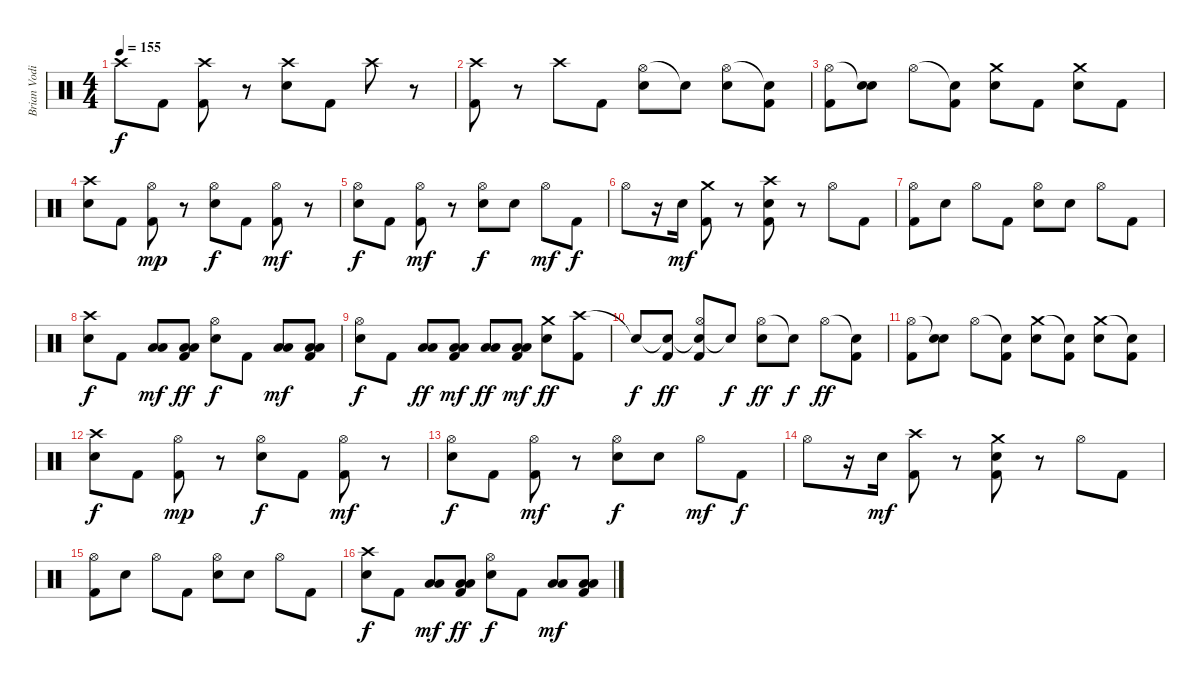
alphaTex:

\track ("Brian Vodinh" "Brian Vodi") {instrument percussion}
\staff {score}
\articulation defaults
\ts (4 4)
\tempo 155
\clef neutral
\ks c "Crash high (hit)".8{dy f} "Kick (hit) 2".8
("Crash high (hit)" "Kick (hit) 2").8 r.8 ("Crash high (hit)" "Electric Snare (hit)").8 "Kick (hit) 2".8 "Crash high (hit)".8 r.8 |
("Crash high (hit)" "Kick (hit) 2").8 r.8 "Crash high (hit)".8 "Kick (hit) 2".8 ("Hi-Hat (open)" "Electric Snare (hit)").8 "Snare (hit)"{t}.8 ("Hi-Hat (open)" "Electric Snare (hit)").8 ("Snare (hit)"{t} "Kick (hit) 2").8 |
("Hi-Hat (open)" "Kick (hit) 2").8 ("Snare (hit)"{t} "Electric Snare (hit)").8 "Hi-Hat (open)".8 ("Snare (hit)"{t} "Kick (hit) 2").8 ("Crash medium (hit)" "Electric Snare (hit)").8 "Kick (hit) 2".8 ("Crash medium (hit)" "Electric Snare (hit)").8 "Kick (hit) 2".8 |
("Crash high (hit)" "Electric Snare (hit)").8 "Kick (hit) 2".8 ("Hi-Hat (open)" "Kick (hit) 2").8{dy mp} r.8 ("Hi-Hat (open)" "Electric Snare (hit)").8{dy f} "Kick (hit) 2".8 ("Hi-Hat (open)" "Kick (hit) 2").8{dy mf} r.8 |
("Hi-Hat (open)" "Electric Snare (hit)").8{dy f} "Kick (hit) 2".8 ("Hi-Hat (open)" "Kick (hit) 2").8{dy mf} r.8 ("Hi-Hat (open)" "Electric Snare (hit)").8{dy f} "Electric Snare (hit)".8 "Hi-Hat (open)".8{dy mf} "Kick (hit) 2".8{dy f} |
"Hi-Hat (open)".8 r.16 "Electric Snare (hit)".16{dy mf} ("Crash medium (hit)" "Kick (hit) 2").8 r.8 ("Crash high (hit)" "Electric Snare (hit)" "Kick (hit) 2").8 r.8 "Hi-Hat (open)".8 "Kick (hit) 2".8 |
("Hi-Hat (open)" "Kick (hit) 2").8 "Electric Snare (hit)".8 "Hi-Hat (open)".8 "Kick (hit) 2".8 ("Hi-Hat (open)" "Electric Snare (hit)").8 "Electric Snare (hit)".8 "Hi-Hat (open)".8 "Kick (hit) 2".8 |
("Crash high (hit)" "Electric Snare (hit)").8{dy f} "Kick (hit) 2".8 ("Low Floor Tom (hit)" "Low Floor Tom (hit)").8{dy mf} ("Low Floor Tom (hit)" "Low Floor Tom (hit)" "Kick (hit) 2").8{dy ff} ("Hi-Hat (open)" "Electric Snare (hit)").8{dy f} "Kick (hit) 2".8 ("Low Floor Tom (hit)" "Low Floor Tom (hit)").8{dy mf} ("Low Floor Tom (hit)" "Low Floor Tom (hit)" "Kick (hit) 2").8 |
("Hi-Hat (open)" "Electric Snare (hit)").8{dy f} "Kick (hit) 2".8 ("Low Floor Tom (hit)" "Low Floor Tom (hit)").8{dy ff} ("Low Floor Tom (hit)" "Low Floor Tom (hit)" "Kick (hit) 2").8{dy mf} ("Low Floor Tom (hit)" "Low Floor Tom (hit)").8{dy ff} ("Low Floor Tom (hit)" "Low Floor Tom (hit)" "Kick (hit) 2").8{dy mf} ("Crash medium (hit)" "Electric Snare (hit)").8{dy ff} ("Crash high (hit)" "Kick (hit) 2").8 |
"Snare (hit)"{t}.8{dy f} ("Snare (hit)"{t} "Kick (hit) 2").8{dy ff} ("Snare (hit)"{t} "Hi-Hat (open)" "Kick (hit) 2").8 "Snare (hit)"{t}.8{dy f} ("Hi-Hat (open)" "Electric Snare (hit)").8{dy ff} "Snare (hit)"{t}.8{dy f} "Hi-Hat (open)".8{dy ff} ("Snare (hit)"{t} "Kick (hit) 2").8 |
("Hi-Hat (open)" "Kick (hit) 2").8 ("Snare (hit)"{t} "Electric Snare (hit)").8 "Hi-Hat (open)".8 ("Snare (hit)"{t} "Kick (hit) 2").8 ("Crash medium (hit)" "Electric Snare (hit)").8 ("Snare (hit)"{t} "Kick (hit) 2").8 ("Crash medium (hit)" "Electric Snare (hit)").8 ("Snare (hit)"{t} "Kick (hit) 2").8 |
("Crash high (hit)" "Electric Snare (hit)").8{dy f} "Kick (hit) 2".8 ("Hi-Hat (open)" "Kick (hit) 2").8{dy mp} r.8 ("Hi-Hat (open)" "Electric Snare (hit)").8{dy f} "Kick (hit) 2".8 ("Hi-Hat (open)" "Kick (hit) 2").8{dy mf} r.8 |
("Hi-Hat (open)" "Electric Snare (hit)").8{dy f} "Kick (hit) 2".8 ("Hi-Hat (open)" "Kick (hit) 2").8{dy mf} r.8 ("Hi-Hat (open)" "Electric Snare (hit)").8{dy f} "Electric Snare (hit)".8 "Hi-Hat (open)".8{dy mf} "Kick (hit) 2".8{dy f} |
"Hi-Hat (open)".8 r.16 "Electric Snare (hit)".16{dy mf} ("Crash high (hit)" "Kick (hit) 2").8 r.8 ("Crash medium (hit)" "Electric Snare (hit)" "Kick (hit) 2").8 r.8 "Hi-Hat (open)".8 "Kick (hit) 2".8 |
("Hi-Hat (open)" "Kick (hit) 2").8 "Electric Snare (hit)".8 "Hi-Hat (open)".8 "Kick (hit) 2".8 ("Hi-Hat (open)" "Electric Snare (hit)").8 "Electric Snare (hit)".8 "Hi-Hat (open)".8 "Kick (hit) 2".8 |
("Crash high (hit)" "Electric Snare (hit)").8{dy f} "Kick (hit) 2".8 ("Low Floor Tom (hit)" "Low Floor Tom (hit)").8{dy mf} ("Low Floor Tom (hit)" "Low Floor Tom (hit)" "Kick (hit) 2").8{dy ff} ("Hi-Hat (open)" "Electric Snare (hit)").8{dy f} "Kick (hit) 2".8 ("Low Floor Tom (hit)" "Low Floor Tom (hit)").8{dy mf} ("Low Floor Tom (hit)" "Low Floor Tom (hit)" "Kick (hit) 2").8
